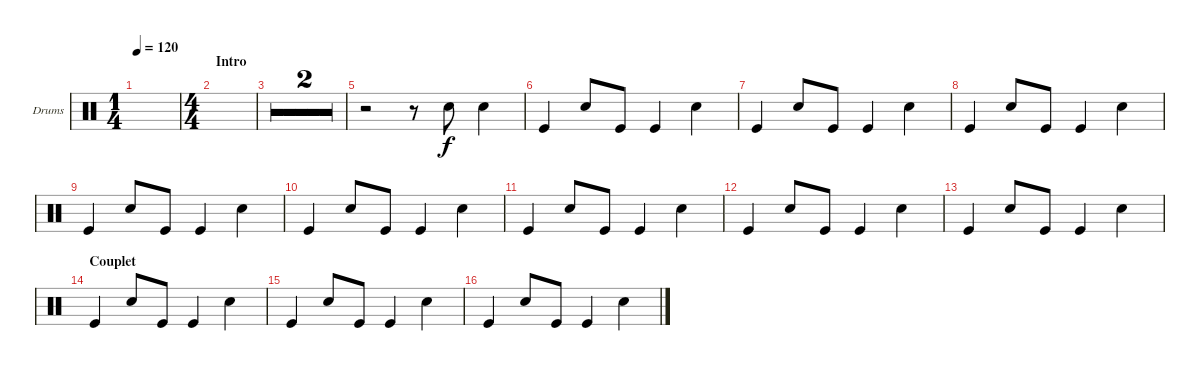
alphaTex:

\defaultSystemsLayout 4
\bracketExtendMode groupsimilarinstruments
\firstSystemTrackNameOrientation horizontal
\otherSystemsTrackNameOrientation horizontal
\track ("Drumkit" "Drums") {multiBarRest instrument percussion}
\staff {score}
\articulation defaults
\ts (1 4)
\tempo 120
\clef neutral
\ks c
|
\ts (4 4)
\section ("" "Intro")
|
|
|
r.2 r.8 "Snare (hit) 2".8 "Snare (hit) 2".4 |
"Kick (hit)".4 "Snare (hit) 2".8 "Kick (hit)".8 "Kick (hit)".4 "Snare (hit) 2".4 |
"Kick (hit)".4 "Snare (hit) 2".8 "Kick (hit)".8 "Kick (hit)".4 "Snare (hit) 2".4 |
"Kick (hit)".4 "Snare (hit) 2".8 "Kick (hit)".8 "Kick (hit)".4 "Snare (hit) 2".4 |
"Kick (hit)".4 "Snare (hit) 2".8 "Kick (hit)".8 "Kick (hit)".4 "Snare (hit) 2".4 |
"Kick (hit)".4 "Snare (hit) 2".8 "Kick (hit)".8 "Kick (hit)".4 "Snare (hit) 2".4 |
"Kick (hit)".4 "Snare (hit) 2".8 "Kick (hit)".8 "Kick (hit)".4 "Snare (hit) 2".4 |
"Kick (hit)".4 "Snare (hit) 2".8 "Kick (hit)".8 "Kick (hit)".4 "Snare (hit) 2".4 |
"Kick (hit)".4 "Snare (hit) 2".8 "Kick (hit)".8 "Kick (hit)".4 "Snare (hit) 2".4 |
\section ("" "Couplet")
"Kick (hit)".4 "Snare (hit) 2".8 "Kick (hit)".8 "Kick (hit)".4 "Snare (hit) 2".4 |
"Kick (hit)".4 "Snare (hit) 2".8 "Kick (hit)".8 "Kick (hit)".4 "Snare (hit) 2".4 |
"Kick (hit)".4 "Snare (hit) 2".8 "Kick (hit)".8 "Kick (hit)".4 "Snare (hit) 2".4
